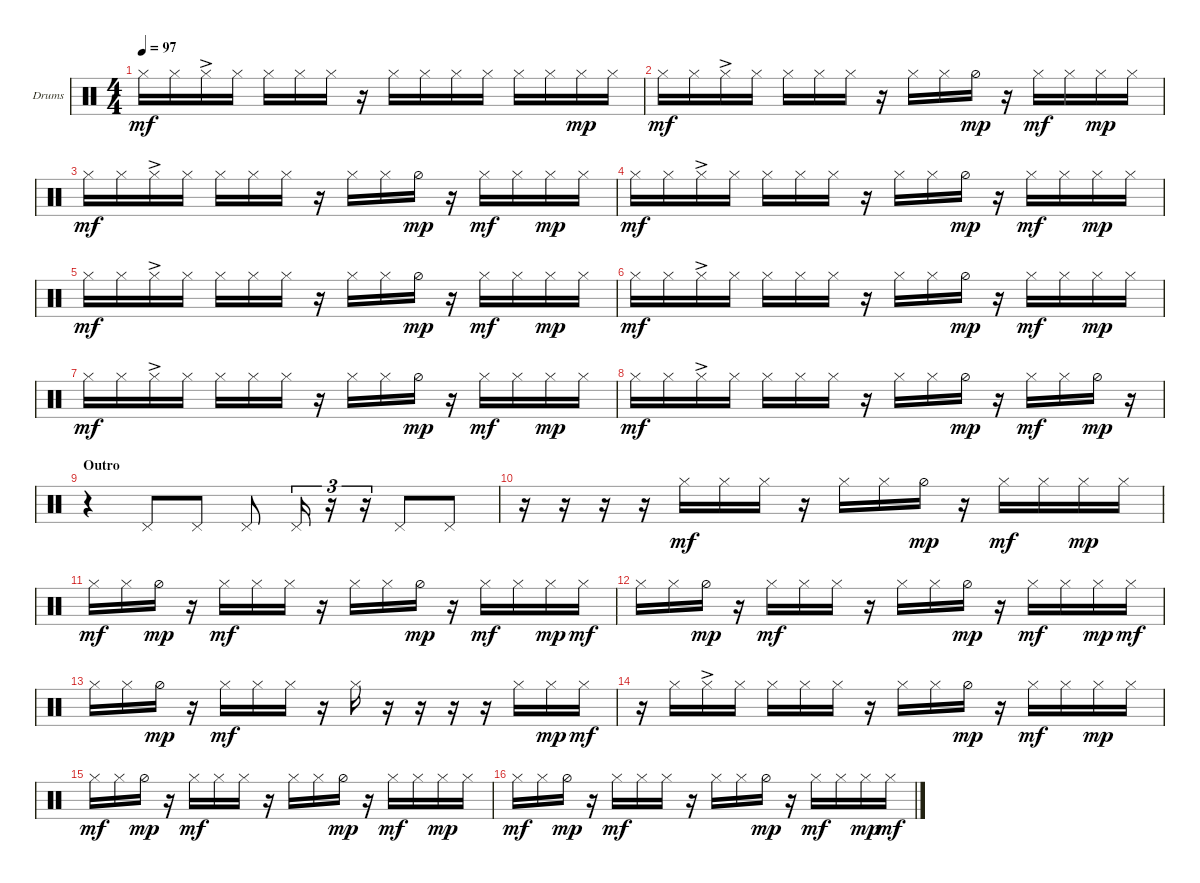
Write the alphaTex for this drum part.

\bracketExtendMode groupsimilarinstruments
\firstSystemTrackNameOrientation horizontal
\otherSystemsTrackNameOrientation horizontal
\track ("HH" "Drums") {instrument percussion}
\staff {score}
\articulation defaults
\ts (4 4)
\tempo 97
\clef neutral
\ks c "Hi-Hat (closed)".16{dy mf} "Hi-Hat (closed)".16 "Hi-Hat (closed)"{ac}.16 "Hi-Hat (closed)".16 "Hi-Hat (closed)".16 "Hi-Hat (closed)".16 "Hi-Hat (closed)".16
r.16 "Hi-Hat (closed)".16 "Hi-Hat (closed)".16 "Hi-Hat (closed)".16 "Hi-Hat (closed)".16 "Hi-Hat (closed)".16 "Hi-Hat (closed)".16 "Hi-Hat (closed)".16{dy mp} "Hi-Hat (closed)".16 |
"Hi-Hat (closed)".16{dy mf} "Hi-Hat (closed)".16 "Hi-Hat (closed)"{ac}.16 "Hi-Hat (closed)".16 "Hi-Hat (closed)".16 "Hi-Hat (closed)".16 "Hi-Hat (closed)".16 r.16 "Hi-Hat (closed)".16 "Hi-Hat (closed)".16 "Hi-Hat (half)".16{dy mp} r.16 "Hi-Hat (closed)".16{dy mf} "Hi-Hat (closed)".16 "Hi-Hat (closed)".16{dy mp} "Hi-Hat (closed)".16 |
"Hi-Hat (closed)".16{dy mf} "Hi-Hat (closed)".16 "Hi-Hat (closed)"{ac}.16 "Hi-Hat (closed)".16 "Hi-Hat (closed)".16 "Hi-Hat (closed)".16 "Hi-Hat (closed)".16 r.16 "Hi-Hat (closed)".16 "Hi-Hat (closed)".16 "Hi-Hat (half)".16{dy mp} r.16 "Hi-Hat (closed)".16{dy mf} "Hi-Hat (closed)".16 "Hi-Hat (closed)".16{dy mp} "Hi-Hat (closed)".16 |
"Hi-Hat (closed)".16{dy mf} "Hi-Hat (closed)".16 "Hi-Hat (closed)"{ac}.16 "Hi-Hat (closed)".16 "Hi-Hat (closed)".16 "Hi-Hat (closed)".16 "Hi-Hat (closed)".16 r.16 "Hi-Hat (closed)".16 "Hi-Hat (closed)".16 "Hi-Hat (half)".16{dy mp} r.16 "Hi-Hat (closed)".16{dy mf} "Hi-Hat (closed)".16 "Hi-Hat (closed)".16{dy mp} "Hi-Hat (closed)".16 |
"Hi-Hat (closed)".16{dy mf} "Hi-Hat (closed)".16 "Hi-Hat (closed)"{ac}.16 "Hi-Hat (closed)".16 "Hi-Hat (closed)".16 "Hi-Hat (closed)".16 "Hi-Hat (closed)".16 r.16 "Hi-Hat (closed)".16 "Hi-Hat (closed)".16 "Hi-Hat (half)".16{dy mp} r.16 "Hi-Hat (closed)".16{dy mf} "Hi-Hat (closed)".16 "Hi-Hat (closed)".16{dy mp} "Hi-Hat (closed)".16 |
"Hi-Hat (closed)".16{dy mf} "Hi-Hat (closed)".16 "Hi-Hat (closed)"{ac}.16 "Hi-Hat (closed)".16 "Hi-Hat (closed)".16 "Hi-Hat (closed)".16 "Hi-Hat (closed)".16 r.16 "Hi-Hat (closed)".16 "Hi-Hat (closed)".16 "Hi-Hat (half)".16{dy mp} r.16 "Hi-Hat (closed)".16{dy mf} "Hi-Hat (closed)".16 "Hi-Hat (closed)".16{dy mp} "Hi-Hat (closed)".16 |
"Hi-Hat (closed)".16{dy mf} "Hi-Hat (closed)".16 "Hi-Hat (closed)"{ac}.16 "Hi-Hat (closed)".16 "Hi-Hat (closed)".16 "Hi-Hat (closed)".16 "Hi-Hat (closed)".16 r.16 "Hi-Hat (closed)".16 "Hi-Hat (closed)".16 "Hi-Hat (half)".16{dy mp} r.16 "Hi-Hat (closed)".16{dy mf} "Hi-Hat (closed)".16 "Hi-Hat (closed)".16{dy mp} "Hi-Hat (closed)".16 |
"Hi-Hat (closed)".16{dy mf} "Hi-Hat (closed)".16 "Hi-Hat (closed)"{ac}.16 "Hi-Hat (closed)".16 "Hi-Hat (closed)".16 "Hi-Hat (closed)".16 "Hi-Hat (closed)".16 r.16 "Hi-Hat (closed)".16 "Hi-Hat (closed)".16 "Hi-Hat (half)".16{dy mp} r.16 "Hi-Hat (closed)".16{dy mf} "Hi-Hat (closed)".16 "Hi-Hat (half)".16{dy mp} r.16 |
\section ("" "Outro")
r.4 "Pedal Hi-Hat (hit)".8 "Pedal Hi-Hat (hit)".8 "Pedal Hi-Hat (hit)".8 "Pedal Hi-Hat (hit)".16{tu (3 2)} r.16{tu (3 2)} r.16{tu (3 2)} "Pedal Hi-Hat (hit)".8 "Pedal Hi-Hat (hit)".8 |
r.16 r.16 r.16 r.16 "Hi-Hat (closed)".16{dy mf} "Hi-Hat (closed)".16 "Hi-Hat (closed)".16 r.16 "Hi-Hat (closed)".16 "Hi-Hat (closed)".16 "Hi-Hat (half)".16{dy mp} r.16 "Hi-Hat (closed)".16{dy mf} "Hi-Hat (closed)".16 "Hi-Hat (closed)".16{dy mp} "Hi-Hat (closed)".16 |
"Hi-Hat (closed)".16{dy mf} "Hi-Hat (closed)".16 "Hi-Hat (half)".16{dy mp} r.16 "Hi-Hat (closed)".16{dy mf} "Hi-Hat (closed)".16 "Hi-Hat (closed)".16 r.16 "Hi-Hat (closed)".16 "Hi-Hat (closed)".16 "Hi-Hat (half)".16{dy mp} r.16 "Hi-Hat (closed)".16{dy mf} "Hi-Hat (closed)".16 "Hi-Hat (closed)".16{dy mp} "Hi-Hat (closed)".16{dy mf} |
"Hi-Hat (closed)".16 "Hi-Hat (closed)".16 "Hi-Hat (half)".16{dy mp} r.16 "Hi-Hat (closed)".16{dy mf} "Hi-Hat (closed)".16 "Hi-Hat (closed)".16 r.16 "Hi-Hat (closed)".16 "Hi-Hat (closed)".16 "Hi-Hat (half)".16{dy mp} r.16 "Hi-Hat (closed)".16{dy mf} "Hi-Hat (closed)".16 "Hi-Hat (closed)".16{dy mp} "Hi-Hat (closed)".16{dy mf} |
"Hi-Hat (closed)".16 "Hi-Hat (closed)".16 "Hi-Hat (half)".16{dy mp} r.16 "Hi-Hat (closed)".16{dy mf} "Hi-Hat (closed)".16 "Hi-Hat (closed)".16 r.16 "Hi-Hat (closed)".16 r.16 r.16 r.16 r.16 "Hi-Hat (closed)".16 "Hi-Hat (closed)".16{dy mp} "Hi-Hat (closed)".16{dy mf} |
r.16 "Hi-Hat (closed)".16 "Hi-Hat (closed)"{ac}.16 "Hi-Hat (closed)".16 "Hi-Hat (closed)".16 "Hi-Hat (closed)".16 "Hi-Hat (closed)".16 r.16 "Hi-Hat (closed)".16 "Hi-Hat (closed)".16 "Hi-Hat (half)".16{dy mp} r.16 "Hi-Hat (closed)".16{dy mf} "Hi-Hat (closed)".16 "Hi-Hat (closed)".16{dy mp} "Hi-Hat (closed)".16 |
"Hi-Hat (closed)".16{dy mf} "Hi-Hat (closed)".16 "Hi-Hat (half)".16{dy mp} r.16 "Hi-Hat (closed)".16{dy mf} "Hi-Hat (closed)".16 "Hi-Hat (closed)".16 r.16 "Hi-Hat (closed)".16 "Hi-Hat (closed)".16 "Hi-Hat (half)".16{dy mp} r.16 "Hi-Hat (closed)".16{dy mf} "Hi-Hat (closed)".16 "Hi-Hat (closed)".16{dy mp} "Hi-Hat (closed)".16 |
"Hi-Hat (closed)".16{dy mf} "Hi-Hat (closed)".16 "Hi-Hat (half)".16{dy mp} r.16 "Hi-Hat (closed)".16{dy mf} "Hi-Hat (closed)".16 "Hi-Hat (closed)".16 r.16 "Hi-Hat (closed)".16 "Hi-Hat (closed)".16 "Hi-Hat (half)".16{dy mp} r.16 "Hi-Hat (closed)".16{dy mf} "Hi-Hat (closed)".16 "Hi-Hat (closed)".16{dy mp} "Hi-Hat (closed)".16{dy mf}
